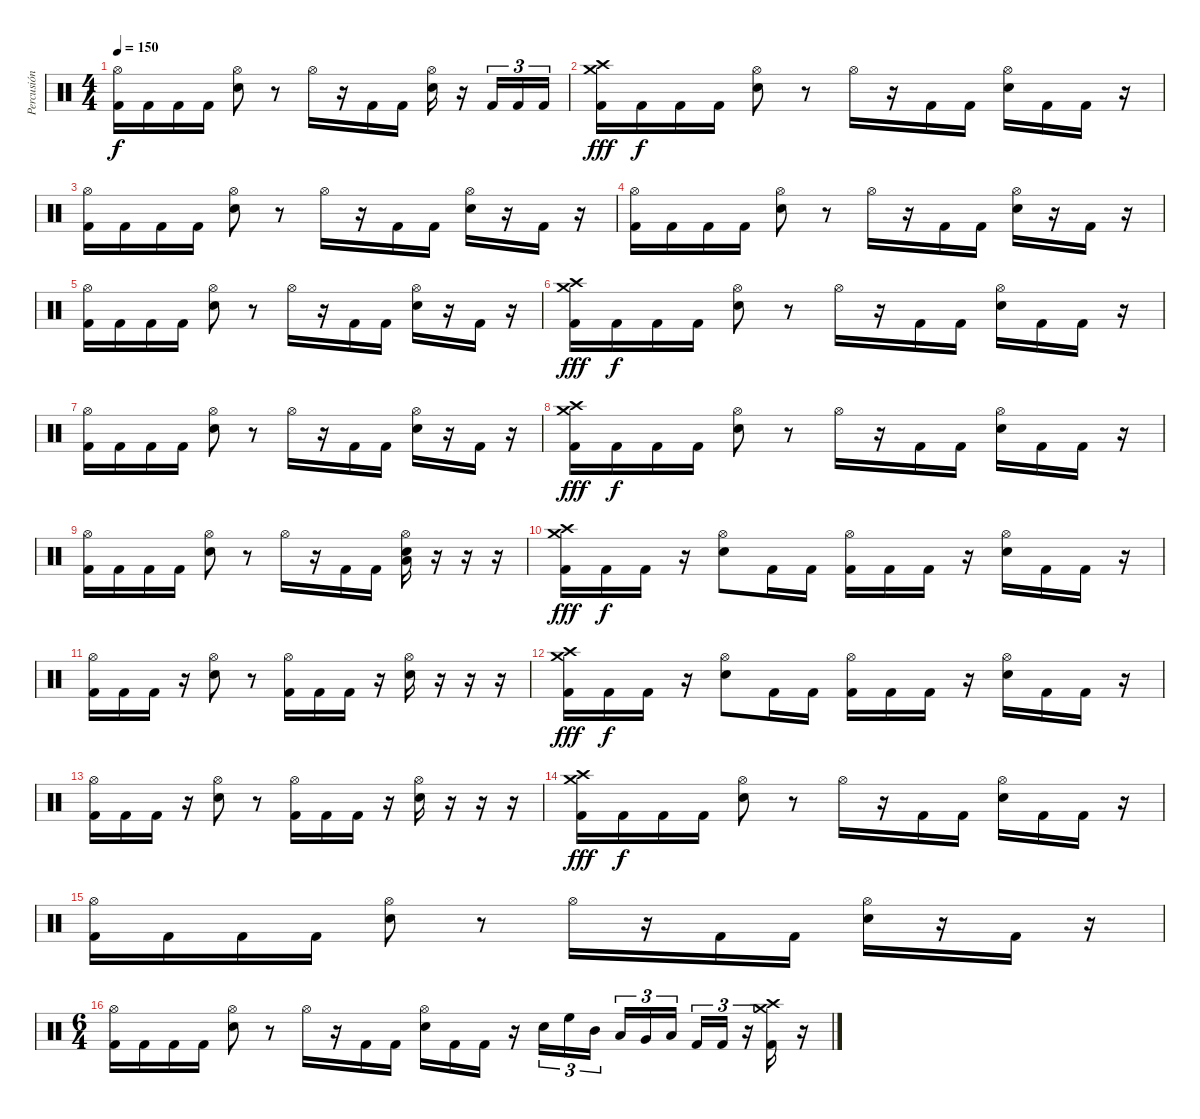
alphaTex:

\track ("Percusión" "Percusión") {instrument percussion}
\staff {score}
\articulation defaults
\ts (4 4)
\tempo 150
\clef neutral
\ks c
("Hi-Hat (open)" "Kick (hit) 2").16{dy f} "Kick (hit) 2".16 "Kick (hit) 2".16 "Kick (hit) 2".16 ("Hi-Hat (open)" "Electric Snare (hit)").8 r.8 "Hi-Hat (open)".16 r.16 "Kick (hit) 2".16 "Kick (hit) 2".16 ("Hi-Hat (open)" "Electric Snare (hit)").16 r.16 "Kick (hit) 2".16{tu (3 2)} "Kick (hit) 2".16{tu (3 2)} "Kick (hit) 2".16{tu (3 2)} |
("Crash high (hit)" "Crash medium (hit)" "Kick (hit) 2").16{dy fff} "Kick (hit) 2".16{dy f} "Kick (hit) 2".16 "Kick (hit) 2".16 ("Hi-Hat (open)" "Electric Snare (hit)").8 r.8 "Hi-Hat (open)".16 r.16 "Kick (hit) 2".16 "Kick (hit) 2".16 ("Hi-Hat (open)" "Electric Snare (hit)").16 "Kick (hit) 2".16 "Kick (hit) 2".16 r.16 |
("Hi-Hat (open)" "Kick (hit) 2").16 "Kick (hit) 2".16 "Kick (hit) 2".16 "Kick (hit) 2".16 ("Hi-Hat (open)" "Electric Snare (hit)").8 r.8 "Hi-Hat (open)".16 r.16 "Kick (hit) 2".16 "Kick (hit) 2".16 ("Hi-Hat (open)" "Electric Snare (hit)").16 r.16 "Kick (hit) 2".16 r.16 |
("Hi-Hat (open)" "Kick (hit) 2").16 "Kick (hit) 2".16 "Kick (hit) 2".16 "Kick (hit) 2".16 ("Hi-Hat (open)" "Electric Snare (hit)").8 r.8 "Hi-Hat (open)".16 r.16 "Kick (hit) 2".16 "Kick (hit) 2".16 ("Hi-Hat (open)" "Electric Snare (hit)").16 r.16 "Kick (hit) 2".16 r.16 |
("Hi-Hat (open)" "Kick (hit) 2").16 "Kick (hit) 2".16 "Kick (hit) 2".16 "Kick (hit) 2".16 ("Hi-Hat (open)" "Electric Snare (hit)").8 r.8 "Hi-Hat (open)".16 r.16 "Kick (hit) 2".16 "Kick (hit) 2".16 ("Hi-Hat (open)" "Electric Snare (hit)").16 r.16 "Kick (hit) 2".16 r.16 |
("Crash high (hit)" "Crash medium (hit)" "Kick (hit) 2").16{dy fff} "Kick (hit) 2".16{dy f} "Kick (hit) 2".16 "Kick (hit) 2".16 ("Hi-Hat (open)" "Electric Snare (hit)").8 r.8 "Hi-Hat (open)".16 r.16 "Kick (hit) 2".16 "Kick (hit) 2".16 ("Hi-Hat (open)" "Electric Snare (hit)").16 "Kick (hit) 2".16 "Kick (hit) 2".16 r.16 |
("Hi-Hat (open)" "Kick (hit) 2").16 "Kick (hit) 2".16 "Kick (hit) 2".16 "Kick (hit) 2".16 ("Hi-Hat (open)" "Electric Snare (hit)").8 r.8 "Hi-Hat (open)".16 r.16 "Kick (hit) 2".16 "Kick (hit) 2".16 ("Hi-Hat (open)" "Electric Snare (hit)").16 r.16 "Kick (hit) 2".16 r.16 |
("Crash high (hit)" "Crash medium (hit)" "Kick (hit) 2").16{dy fff} "Kick (hit) 2".16{dy f} "Kick (hit) 2".16 "Kick (hit) 2".16 ("Hi-Hat (open)" "Electric Snare (hit)").8 r.8 "Hi-Hat (open)".16 r.16 "Kick (hit) 2".16 "Kick (hit) 2".16 ("Hi-Hat (open)" "Electric Snare (hit)").16 "Kick (hit) 2".16 "Kick (hit) 2".16 r.16 |
("Hi-Hat (open)" "Kick (hit) 2").16 "Kick (hit) 2".16 "Kick (hit) 2".16 "Kick (hit) 2".16 ("Hi-Hat (open)" "Electric Snare (hit)").8 r.8 "Hi-Hat (open)".16 r.16 "Kick (hit) 2".16 "Kick (hit) 2".16 ("Hi-Hat (open)" "Electric Snare (hit)" "Low Tom (hit)").16 r.16 r.16 r.16 |
("Crash high (hit)" "Crash medium (hit)" "Kick (hit) 2").16{dy fff} "Kick (hit) 2".16{dy f} "Kick (hit) 2".16 r.16 ("Hi-Hat (open)" "Electric Snare (hit)").8 "Kick (hit) 2".16 "Kick (hit) 2".16 ("Hi-Hat (open)" "Kick (hit) 2").16 "Kick (hit) 2".16 "Kick (hit) 2".16 r.16 ("Hi-Hat (open)" "Electric Snare (hit)").16 "Kick (hit) 2".16 "Kick (hit) 2".16 r.16 |
("Hi-Hat (open)" "Kick (hit) 2").16 "Kick (hit) 2".16 "Kick (hit) 2".16 r.16 ("Hi-Hat (open)" "Electric Snare (hit)").8 r.8 ("Hi-Hat (open)" "Kick (hit) 2").16 "Kick (hit) 2".16 "Kick (hit) 2".16 r.16 ("Hi-Hat (open)" "Electric Snare (hit)").16 r.16 r.16 r.16 |
("Crash high (hit)" "Crash medium (hit)" "Kick (hit) 2").16{dy fff} "Kick (hit) 2".16{dy f} "Kick (hit) 2".16 r.16 ("Hi-Hat (open)" "Electric Snare (hit)").8 "Kick (hit) 2".16 "Kick (hit) 2".16 ("Hi-Hat (open)" "Kick (hit) 2").16 "Kick (hit) 2".16 "Kick (hit) 2".16 r.16 ("Hi-Hat (open)" "Electric Snare (hit)").16 "Kick (hit) 2".16 "Kick (hit) 2".16 r.16 |
("Hi-Hat (open)" "Kick (hit) 2").16 "Kick (hit) 2".16 "Kick (hit) 2".16 r.16 ("Hi-Hat (open)" "Electric Snare (hit)").8 r.8 ("Hi-Hat (open)" "Kick (hit) 2").16 "Kick (hit) 2".16 "Kick (hit) 2".16 r.16 ("Hi-Hat (open)" "Electric Snare (hit)").16 r.16 r.16 r.16 |
("Crash high (hit)" "Crash medium (hit)" "Kick (hit) 2").16{dy fff} "Kick (hit) 2".16{dy f} "Kick (hit) 2".16 "Kick (hit) 2".16 ("Hi-Hat (open)" "Electric Snare (hit)").8 r.8 "Hi-Hat (open)".16 r.16 "Kick (hit) 2".16 "Kick (hit) 2".16 ("Hi-Hat (open)" "Electric Snare (hit)").16 "Kick (hit) 2".16 "Kick (hit) 2".16 r.16 |
("Hi-Hat (open)" "Kick (hit) 2").16 "Kick (hit) 2".16 "Kick (hit) 2".16 "Kick (hit) 2".16 ("Hi-Hat (open)" "Electric Snare (hit)").8 r.8 "Hi-Hat (open)".16 r.16 "Kick (hit) 2".16 "Kick (hit) 2".16 ("Hi-Hat (open)" "Electric Snare (hit)").16 r.16 "Kick (hit) 2".16 r.16 |
\ts (6 4)
("Hi-Hat (open)" "Kick (hit) 2").16 "Kick (hit) 2".16 "Kick (hit) 2".16 "Kick (hit) 2".16 ("Hi-Hat (open)" "Electric Snare (hit)").8 r.8 "Hi-Hat (open)".16 r.16 "Kick (hit) 2".16 "Kick (hit) 2".16 ("Hi-Hat (open)" "Electric Snare (hit)").16 "Kick (hit) 2".16 "Kick (hit) 2".16 r.16 "Electric Snare (hit)".16{tu (3 2)} "High Floor Tom (hit)".16{tu (3 2)} "Mid Tom (hit)".16{tu (3 2) beam splitsecondary} "Low Tom (hit)".16{tu (3 2)} "Very Low Tom (hit)".16{tu (3 2)} "Low Floor Tom (hit)".16{tu (3 2) beam splitsecondary} "Kick (hit) 2".16{tu (3 2)} "Kick (hit) 2".16{tu (3 2)} r.16{tu (3 2)} ("Crash medium (hit)" "Crash high (hit)" "Kick (hit) 2").16 r.16
